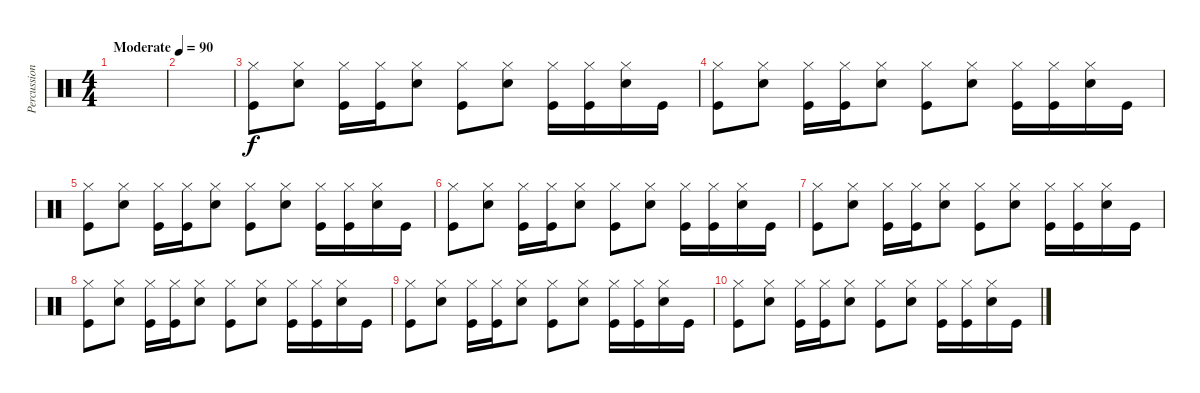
\track ("Percussions" "Percussion") {instrument percussion}
\staff {score}
\articulation defaults
\ts (4 4)
\tempo (90 "Moderate")
\clef neutral
\ks c
|
|
("Hi-Hat (closed)" "Kick (hit)").8 ("Hi-Hat (closed)" "Snare (hit) 2").8 ("Hi-Hat (closed)" "Kick (hit)").16 ("Hi-Hat (closed)" "Kick (hit)").16 ("Hi-Hat (closed)" "Snare (hit) 2").8 ("Hi-Hat (closed)" "Kick (hit)").8 ("Hi-Hat (closed)" "Snare (hit) 2").8 ("Hi-Hat (closed)" "Kick (hit)").16 ("Hi-Hat (closed)" "Kick (hit)").16 ("Hi-Hat (closed)" "Snare (hit) 2").16 "Kick (hit)".16 |
("Hi-Hat (closed)" "Kick (hit)").8 ("Hi-Hat (closed)" "Snare (hit) 2").8 ("Hi-Hat (closed)" "Kick (hit)").16 ("Hi-Hat (closed)" "Kick (hit)").16 ("Hi-Hat (closed)" "Snare (hit) 2").8 ("Hi-Hat (closed)" "Kick (hit)").8 ("Hi-Hat (closed)" "Snare (hit) 2").8 ("Hi-Hat (closed)" "Kick (hit)").16 ("Hi-Hat (closed)" "Kick (hit)").16 ("Hi-Hat (closed)" "Snare (hit) 2").16 "Kick (hit)".16 |
("Hi-Hat (closed)" "Kick (hit)").8 ("Hi-Hat (closed)" "Snare (hit) 2").8 ("Hi-Hat (closed)" "Kick (hit)").16 ("Hi-Hat (closed)" "Kick (hit)").16 ("Hi-Hat (closed)" "Snare (hit) 2").8 ("Hi-Hat (closed)" "Kick (hit)").8 ("Hi-Hat (closed)" "Snare (hit) 2").8 ("Hi-Hat (closed)" "Kick (hit)").16 ("Hi-Hat (closed)" "Kick (hit)").16 ("Hi-Hat (closed)" "Snare (hit) 2").16 "Kick (hit)".16 |
("Hi-Hat (closed)" "Kick (hit)").8 ("Hi-Hat (closed)" "Snare (hit) 2").8 ("Hi-Hat (closed)" "Kick (hit)").16 ("Hi-Hat (closed)" "Kick (hit)").16 ("Hi-Hat (closed)" "Snare (hit) 2").8 ("Hi-Hat (closed)" "Kick (hit)").8 ("Hi-Hat (closed)" "Snare (hit) 2").8 ("Hi-Hat (closed)" "Kick (hit)").16 ("Hi-Hat (closed)" "Kick (hit)").16 ("Hi-Hat (closed)" "Snare (hit) 2").16 "Kick (hit)".16 |
("Hi-Hat (closed)" "Kick (hit)").8 ("Hi-Hat (closed)" "Snare (hit) 2").8 ("Hi-Hat (closed)" "Kick (hit)").16 ("Hi-Hat (closed)" "Kick (hit)").16 ("Hi-Hat (closed)" "Snare (hit) 2").8 ("Hi-Hat (closed)" "Kick (hit)").8 ("Hi-Hat (closed)" "Snare (hit) 2").8 ("Hi-Hat (closed)" "Kick (hit)").16 ("Hi-Hat (closed)" "Kick (hit)").16 ("Hi-Hat (closed)" "Snare (hit) 2").16 "Kick (hit)".16 |
("Hi-Hat (closed)" "Kick (hit)").8 ("Hi-Hat (closed)" "Snare (hit) 2").8 ("Hi-Hat (closed)" "Kick (hit)").16 ("Hi-Hat (closed)" "Kick (hit)").16 ("Hi-Hat (closed)" "Snare (hit) 2").8 ("Hi-Hat (closed)" "Kick (hit)").8 ("Hi-Hat (closed)" "Snare (hit) 2").8 ("Hi-Hat (closed)" "Kick (hit)").16 ("Hi-Hat (closed)" "Kick (hit)").16 ("Hi-Hat (closed)" "Snare (hit) 2").16 "Kick (hit)".16 |
("Hi-Hat (closed)" "Kick (hit)").8 ("Hi-Hat (closed)" "Snare (hit) 2").8 ("Hi-Hat (closed)" "Kick (hit)").16 ("Hi-Hat (closed)" "Kick (hit)").16 ("Hi-Hat (closed)" "Snare (hit) 2").8 ("Hi-Hat (closed)" "Kick (hit)").8 ("Hi-Hat (closed)" "Snare (hit) 2").8 ("Hi-Hat (closed)" "Kick (hit)").16 ("Hi-Hat (closed)" "Kick (hit)").16 ("Hi-Hat (closed)" "Snare (hit) 2").16 "Kick (hit)".16 |
("Hi-Hat (closed)" "Kick (hit)").8 ("Hi-Hat (closed)" "Snare (hit) 2").8 ("Hi-Hat (closed)" "Kick (hit)").16 ("Hi-Hat (closed)" "Kick (hit)").16 ("Hi-Hat (closed)" "Snare (hit) 2").8 ("Hi-Hat (closed)" "Kick (hit)").8 ("Hi-Hat (closed)" "Snare (hit) 2").8 ("Hi-Hat (closed)" "Kick (hit)").16 ("Hi-Hat (closed)" "Kick (hit)").16 ("Hi-Hat (closed)" "Snare (hit) 2").16 "Kick (hit)".16
